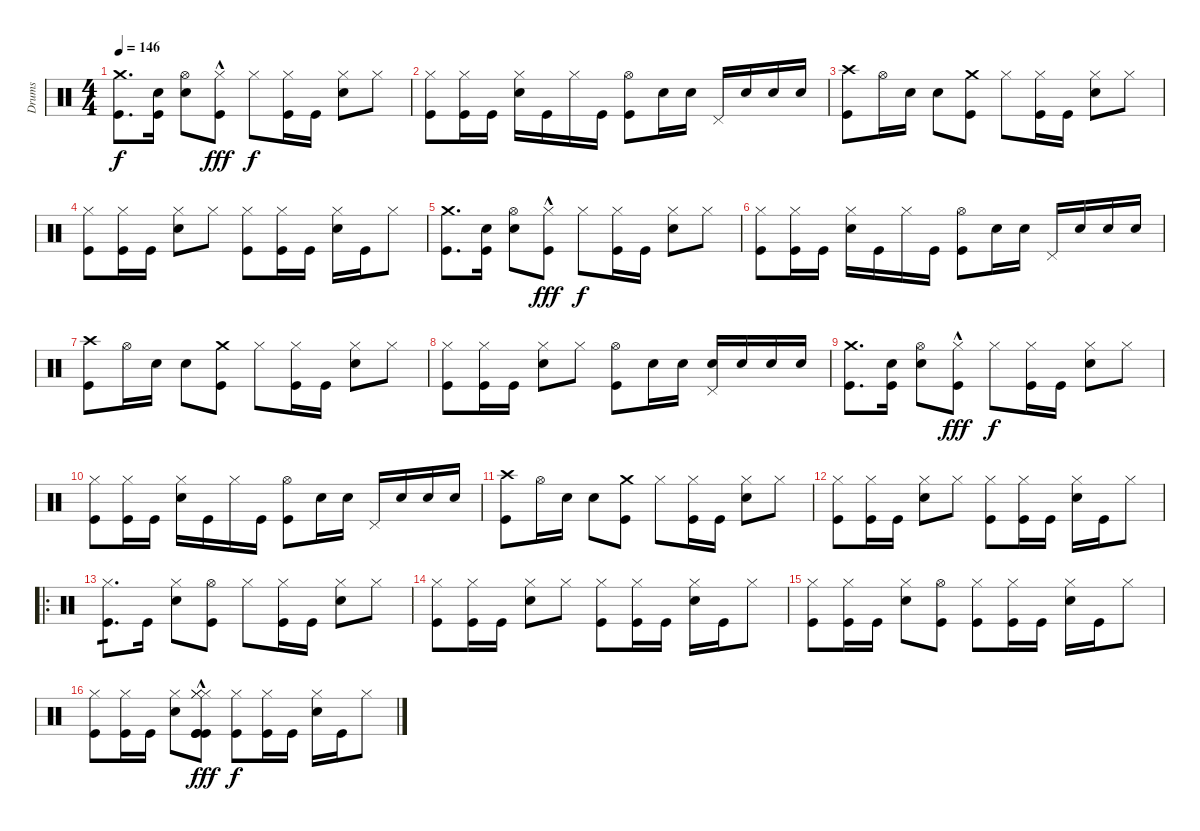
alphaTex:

\track ("Drums" "Drums") {instrument percussion}
\staff {score}
\articulation defaults
\ts (4 4)
\tempo 146
\clef neutral
\ks c
("Crash medium (hit)" "Kick (hit)").8{d dy f} ("Electric Snare (hit)" "Kick (hit)").16 ("Hi-Hat (open)" "Electric Snare (hit)").8 ("Hi-Hat (closed)"{hac} "Kick (hit)"{hac}).8{dy fff} "Hi-Hat (closed)".8{dy f} ("Hi-Hat (closed)" "Kick (hit)").16 "Kick (hit)".16 ("Hi-Hat (closed)" "Electric Snare (hit)").8 "Hi-Hat (closed)".8 |
("Hi-Hat (closed)" "Kick (hit)").8 ("Hi-Hat (closed)" "Kick (hit)").16 "Kick (hit)".16 ("Hi-Hat (closed)" "Electric Snare (hit)").16 "Kick (hit)".16 "Hi-Hat (closed)".16 "Kick (hit)".16 ("Hi-Hat (open)" "Kick (hit)").8 "Electric Snare (hit)".16 "Electric Snare (hit)".16 "Pedal Hi-Hat (hit)".16 "Electric Snare (hit)".16 "Electric Snare (hit)".16 "Electric Snare (hit)".16 |
("Crash high (hit)" "Kick (hit)").8 "Hi-Hat (open)".16 "Electric Snare (hit)".16 "Electric Snare (hit)".8 ("Crash medium (hit)" "Kick (hit)").8 "Hi-Hat (closed)".8 ("Hi-Hat (closed)" "Kick (hit)").16 "Kick (hit)".16 ("Hi-Hat (closed)" "Electric Snare (hit)").8 "Hi-Hat (closed)".8 |
("Hi-Hat (closed)" "Kick (hit)").8 ("Hi-Hat (closed)" "Kick (hit)").16 "Kick (hit)".16 ("Hi-Hat (closed)" "Electric Snare (hit)").8 "Hi-Hat (closed)".8 ("Hi-Hat (closed)" "Kick (hit)").8 ("Hi-Hat (closed)" "Kick (hit)").16 "Kick (hit)".16 ("Hi-Hat (closed)" "Electric Snare (hit)").16 "Kick (hit)".16 "Hi-Hat (closed)".8 |
("Crash medium (hit)" "Kick (hit)").8{d} ("Electric Snare (hit)" "Kick (hit)").16 ("Hi-Hat (open)" "Electric Snare (hit)").8 ("Hi-Hat (closed)"{hac} "Kick (hit)"{hac}).8{dy fff} "Hi-Hat (closed)".8{dy f} ("Hi-Hat (closed)" "Kick (hit)").16 "Kick (hit)".16 ("Hi-Hat (closed)" "Electric Snare (hit)").8 "Hi-Hat (closed)".8 |
("Hi-Hat (closed)" "Kick (hit)").8 ("Hi-Hat (closed)" "Kick (hit)").16 "Kick (hit)".16 ("Hi-Hat (closed)" "Electric Snare (hit)").16 "Kick (hit)".16 "Hi-Hat (closed)".16 "Kick (hit)".16 ("Hi-Hat (open)" "Kick (hit)").8 "Electric Snare (hit)".16 "Electric Snare (hit)".16 "Pedal Hi-Hat (hit)".16 "Electric Snare (hit)".16 "Electric Snare (hit)".16 "Electric Snare (hit)".16 |
("Crash high (hit)" "Kick (hit)").8 "Hi-Hat (open)".16 "Electric Snare (hit)".16 "Electric Snare (hit)".8 ("Crash medium (hit)" "Kick (hit)").8 "Hi-Hat (closed)".8 ("Hi-Hat (closed)" "Kick (hit)").16 "Kick (hit)".16 ("Hi-Hat (closed)" "Electric Snare (hit)").8 "Hi-Hat (closed)".8 |
("Hi-Hat (closed)" "Kick (hit)").8 ("Hi-Hat (closed)" "Kick (hit)").16 "Kick (hit)".16 ("Hi-Hat (closed)" "Electric Snare (hit)").8 "Hi-Hat (closed)".8 ("Hi-Hat (open)" "Kick (hit)").8 "Electric Snare (hit)".16 "Electric Snare (hit)".16 ("Pedal Hi-Hat (hit)" "Electric Snare (hit)").16 "Electric Snare (hit)".16 "Electric Snare (hit)".16 "Electric Snare (hit)".16 |
("Crash medium (hit)" "Kick (hit)").8{d} ("Electric Snare (hit)" "Kick (hit)").16 ("Hi-Hat (open)" "Electric Snare (hit)").8 ("Hi-Hat (closed)"{hac} "Kick (hit)"{hac}).8{dy fff} "Hi-Hat (closed)".8{dy f} ("Hi-Hat (closed)" "Kick (hit)").16 "Kick (hit)".16 ("Hi-Hat (closed)" "Electric Snare (hit)").8 "Hi-Hat (closed)".8 |
("Hi-Hat (closed)" "Kick (hit)").8 ("Hi-Hat (closed)" "Kick (hit)").16 "Kick (hit)".16 ("Hi-Hat (closed)" "Electric Snare (hit)").16 "Kick (hit)".16 "Hi-Hat (closed)".16 "Kick (hit)".16 ("Hi-Hat (open)" "Kick (hit)").8 "Electric Snare (hit)".16 "Electric Snare (hit)".16 "Pedal Hi-Hat (hit)".16 "Electric Snare (hit)".16 "Electric Snare (hit)".16 "Electric Snare (hit)".16 |
("Crash high (hit)" "Kick (hit)").8 "Hi-Hat (open)".16 "Electric Snare (hit)".16 "Electric Snare (hit)".8 ("Crash medium (hit)" "Kick (hit)").8 "Hi-Hat (closed)".8 ("Hi-Hat (closed)" "Kick (hit)").16 "Kick (hit)".16 ("Hi-Hat (closed)" "Electric Snare (hit)").8 "Hi-Hat (closed)".8 |
("Hi-Hat (closed)" "Kick (hit)").8 ("Hi-Hat (closed)" "Kick (hit)").16 "Kick (hit)".16 ("Hi-Hat (closed)" "Electric Snare (hit)").8 "Hi-Hat (closed)".8 ("Hi-Hat (closed)" "Kick (hit)").8 ("Hi-Hat (closed)" "Kick (hit)").16 "Kick (hit)".16 ("Hi-Hat (closed)" "Electric Snare (hit)").16 "Kick (hit)".16 "Hi-Hat (closed)".8 |
\ro
("Hi-Hat (closed)" "Kick (hit)").8{d tp 1} "Kick (hit)".16 ("Hi-Hat (closed)" "Electric Snare (hit)").8 ("Hi-Hat (open)" "Kick (hit)").8 "Hi-Hat (closed)".8 ("Hi-Hat (closed)" "Kick (hit)").16 "Kick (hit)".16 ("Hi-Hat (closed)" "Electric Snare (hit)").8 "Hi-Hat (closed)".8 |
("Hi-Hat (closed)" "Kick (hit)").8 ("Hi-Hat (closed)" "Kick (hit)").16 "Kick (hit)".16 ("Hi-Hat (closed)" "Electric Snare (hit)").8 "Hi-Hat (closed)".8 ("Hi-Hat (closed)" "Kick (hit)").8 ("Hi-Hat (closed)" "Kick (hit)").16 "Kick (hit)".16 ("Hi-Hat (closed)" "Electric Snare (hit)").16 "Kick (hit)".16 "Hi-Hat (closed)".8 |
("Hi-Hat (closed)" "Kick (hit)").8 ("Hi-Hat (closed)" "Kick (hit)").16 "Kick (hit)".16 ("Hi-Hat (closed)" "Electric Snare (hit)").8 ("Hi-Hat (open)" "Kick (hit)").8 ("Hi-Hat (closed)" "Kick (hit)").8 ("Hi-Hat (closed)" "Kick (hit)").16 "Kick (hit)".16 ("Hi-Hat (closed)" "Electric Snare (hit)").16 "Kick (hit)".16 "Hi-Hat (closed)".8 |
("Hi-Hat (closed)" "Kick (hit)").8 ("Hi-Hat (closed)" "Kick (hit)").16 "Kick (hit)".16 ("Hi-Hat (closed)" "Electric Snare (hit)").8 ("Hi-Hat (closed)"{hac} "Hi-Hat (closed)"{hac} "Hi-Hat (closed)"{hac} "Kick (hit)"{hac} "Kick (hit)"{hac} "Kick (hit)"{hac}).8{dy fff} ("Hi-Hat (closed)" "Kick (hit)").8{dy f} ("Hi-Hat (closed)" "Kick (hit)").16 "Kick (hit)".16 ("Hi-Hat (closed)" "Electric Snare (hit)").16 "Kick (hit)".16 "Hi-Hat (closed)".8
